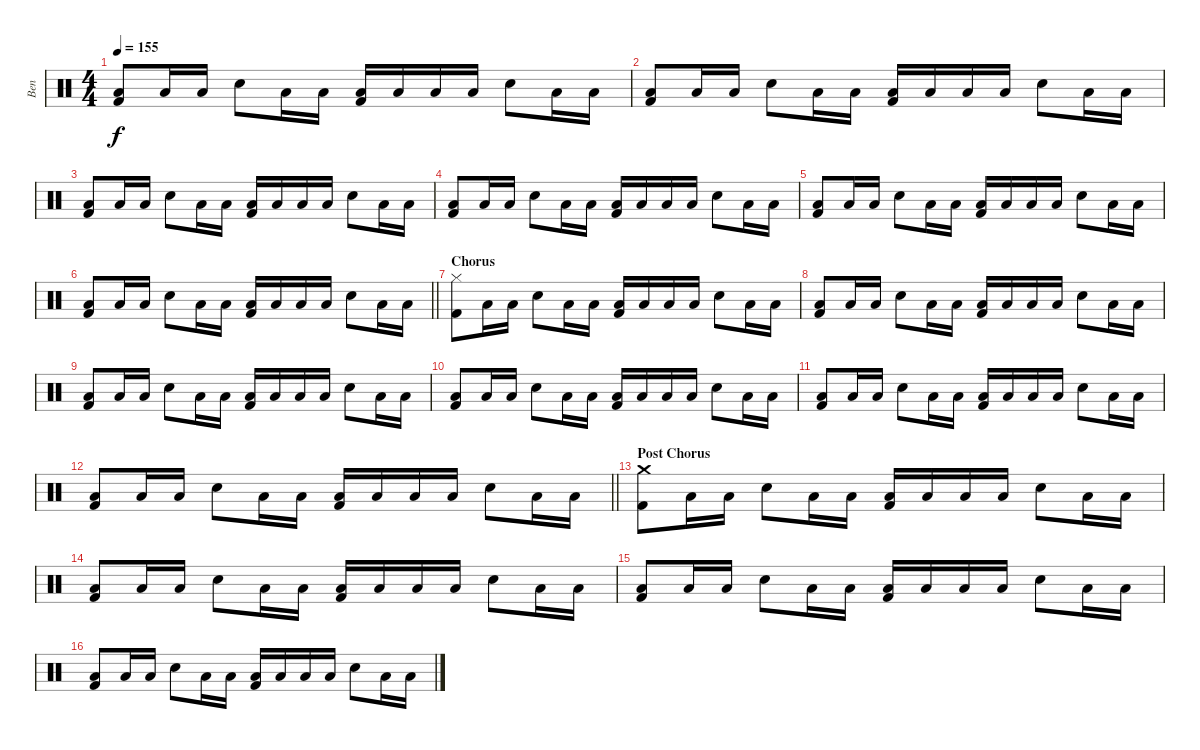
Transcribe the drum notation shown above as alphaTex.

\track ("Ben" "Ben") {instrument percussion}
\staff {score}
\articulation defaults
\ts (4 4)
\tempo 155
\clef neutral
\ks c
("Kick (hit) 2" "Low Floor Tom (hit)").8{dy f} "Low Floor Tom (hit)".16 "Low Floor Tom (hit)".16 "Electric Snare (hit)".8 "Low Floor Tom (hit)".16 "Low Floor Tom (hit)".16 ("Low Floor Tom (hit)" "Kick (hit) 2").16 "Low Floor Tom (hit)".16 "Low Floor Tom (hit)".16 "Low Floor Tom (hit)".16 "Electric Snare (hit)".8 "Low Floor Tom (hit)".16 "Low Floor Tom (hit)".16 |
("Kick (hit) 2" "Low Floor Tom (hit)").8 "Low Floor Tom (hit)".16 "Low Floor Tom (hit)".16 "Electric Snare (hit)".8 "Low Floor Tom (hit)".16 "Low Floor Tom (hit)".16 ("Low Floor Tom (hit)" "Kick (hit) 2").16 "Low Floor Tom (hit)".16 "Low Floor Tom (hit)".16 "Low Floor Tom (hit)".16 "Electric Snare (hit)".8 "Low Floor Tom (hit)".16 "Low Floor Tom (hit)".16 |
("Kick (hit) 2" "Low Floor Tom (hit)").8 "Low Floor Tom (hit)".16 "Low Floor Tom (hit)".16 "Electric Snare (hit)".8 "Low Floor Tom (hit)".16 "Low Floor Tom (hit)".16 ("Low Floor Tom (hit)" "Kick (hit) 2").16 "Low Floor Tom (hit)".16 "Low Floor Tom (hit)".16 "Low Floor Tom (hit)".16 "Electric Snare (hit)".8 "Low Floor Tom (hit)".16 "Low Floor Tom (hit)".16 |
("Kick (hit) 2" "Low Floor Tom (hit)").8 "Low Floor Tom (hit)".16 "Low Floor Tom (hit)".16 "Electric Snare (hit)".8 "Low Floor Tom (hit)".16 "Low Floor Tom (hit)".16 ("Low Floor Tom (hit)" "Kick (hit) 2").16 "Low Floor Tom (hit)".16 "Low Floor Tom (hit)".16 "Low Floor Tom (hit)".16 "Electric Snare (hit)".8 "Low Floor Tom (hit)".16 "Low Floor Tom (hit)".16 |
("Kick (hit) 2" "Low Floor Tom (hit)").8 "Low Floor Tom (hit)".16 "Low Floor Tom (hit)".16 "Electric Snare (hit)".8 "Low Floor Tom (hit)".16 "Low Floor Tom (hit)".16 ("Low Floor Tom (hit)" "Kick (hit) 2").16 "Low Floor Tom (hit)".16 "Low Floor Tom (hit)".16 "Low Floor Tom (hit)".16 "Electric Snare (hit)".8 "Low Floor Tom (hit)".16 "Low Floor Tom (hit)".16 |
\barLineRight lightlight
("Kick (hit) 2" "Low Floor Tom (hit)").8 "Low Floor Tom (hit)".16 "Low Floor Tom (hit)".16 "Electric Snare (hit)".8 "Low Floor Tom (hit)".16 "Low Floor Tom (hit)".16 ("Low Floor Tom (hit)" "Kick (hit) 2").16 "Low Floor Tom (hit)".16 "Low Floor Tom (hit)".16 "Low Floor Tom (hit)".16 "Electric Snare (hit)".8 "Low Floor Tom (hit)".16 "Low Floor Tom (hit)".16 |
\section ("" "Chorus")
("Kick (hit) 2" "Hi-Hat (closed)").8 "Low Floor Tom (hit)".16 "Low Floor Tom (hit)".16 "Electric Snare (hit)".8 "Low Floor Tom (hit)".16 "Low Floor Tom (hit)".16 ("Low Floor Tom (hit)" "Kick (hit) 2").16 "Low Floor Tom (hit)".16 "Low Floor Tom (hit)".16 "Low Floor Tom (hit)".16 "Electric Snare (hit)".8 "Low Floor Tom (hit)".16 "Low Floor Tom (hit)".16 |
("Kick (hit) 2" "Low Floor Tom (hit)").8 "Low Floor Tom (hit)".16 "Low Floor Tom (hit)".16 "Electric Snare (hit)".8 "Low Floor Tom (hit)".16 "Low Floor Tom (hit)".16 ("Low Floor Tom (hit)" "Kick (hit) 2").16 "Low Floor Tom (hit)".16 "Low Floor Tom (hit)".16 "Low Floor Tom (hit)".16 "Electric Snare (hit)".8 "Low Floor Tom (hit)".16 "Low Floor Tom (hit)".16 |
("Kick (hit) 2" "Low Floor Tom (hit)").8 "Low Floor Tom (hit)".16 "Low Floor Tom (hit)".16 "Electric Snare (hit)".8 "Low Floor Tom (hit)".16 "Low Floor Tom (hit)".16 ("Low Floor Tom (hit)" "Kick (hit) 2").16 "Low Floor Tom (hit)".16 "Low Floor Tom (hit)".16 "Low Floor Tom (hit)".16 "Electric Snare (hit)".8 "Low Floor Tom (hit)".16 "Low Floor Tom (hit)".16 |
("Kick (hit) 2" "Low Floor Tom (hit)").8 "Low Floor Tom (hit)".16 "Low Floor Tom (hit)".16 "Electric Snare (hit)".8 "Low Floor Tom (hit)".16 "Low Floor Tom (hit)".16 ("Low Floor Tom (hit)" "Kick (hit) 2").16 "Low Floor Tom (hit)".16 "Low Floor Tom (hit)".16 "Low Floor Tom (hit)".16 "Electric Snare (hit)".8 "Low Floor Tom (hit)".16 "Low Floor Tom (hit)".16 |
("Kick (hit) 2" "Low Floor Tom (hit)").8 "Low Floor Tom (hit)".16 "Low Floor Tom (hit)".16 "Electric Snare (hit)".8 "Low Floor Tom (hit)".16 "Low Floor Tom (hit)".16 ("Low Floor Tom (hit)" "Kick (hit) 2").16 "Low Floor Tom (hit)".16 "Low Floor Tom (hit)".16 "Low Floor Tom (hit)".16 "Electric Snare (hit)".8 "Low Floor Tom (hit)".16 "Low Floor Tom (hit)".16 |
\barLineRight lightlight
("Kick (hit) 2" "Low Floor Tom (hit)").8 "Low Floor Tom (hit)".16 "Low Floor Tom (hit)".16 "Electric Snare (hit)".8 "Low Floor Tom (hit)".16 "Low Floor Tom (hit)".16 ("Low Floor Tom (hit)" "Kick (hit) 2").16 "Low Floor Tom (hit)".16 "Low Floor Tom (hit)".16 "Low Floor Tom (hit)".16 "Electric Snare (hit)".8 "Low Floor Tom (hit)".16 "Low Floor Tom (hit)".16 |
\section ("" "Post Chorus")
("Kick (hit) 2" "Crash medium (hit)").8 "Low Floor Tom (hit)".16 "Low Floor Tom (hit)".16 "Electric Snare (hit)".8 "Low Floor Tom (hit)".16 "Low Floor Tom (hit)".16 ("Low Floor Tom (hit)" "Kick (hit) 2").16 "Low Floor Tom (hit)".16 "Low Floor Tom (hit)".16 "Low Floor Tom (hit)".16 "Electric Snare (hit)".8 "Low Floor Tom (hit)".16 "Low Floor Tom (hit)".16 |
("Kick (hit) 2" "Low Floor Tom (hit)").8 "Low Floor Tom (hit)".16 "Low Floor Tom (hit)".16 "Electric Snare (hit)".8 "Low Floor Tom (hit)".16 "Low Floor Tom (hit)".16 ("Low Floor Tom (hit)" "Kick (hit) 2").16 "Low Floor Tom (hit)".16 "Low Floor Tom (hit)".16 "Low Floor Tom (hit)".16 "Electric Snare (hit)".8 "Low Floor Tom (hit)".16 "Low Floor Tom (hit)".16 |
("Kick (hit) 2" "Low Floor Tom (hit)").8 "Low Floor Tom (hit)".16 "Low Floor Tom (hit)".16 "Electric Snare (hit)".8 "Low Floor Tom (hit)".16 "Low Floor Tom (hit)".16 ("Low Floor Tom (hit)" "Kick (hit) 2").16 "Low Floor Tom (hit)".16 "Low Floor Tom (hit)".16 "Low Floor Tom (hit)".16 "Electric Snare (hit)".8 "Low Floor Tom (hit)".16 "Low Floor Tom (hit)".16 |
("Kick (hit) 2" "Low Floor Tom (hit)").8 "Low Floor Tom (hit)".16 "Low Floor Tom (hit)".16 "Electric Snare (hit)".8 "Low Floor Tom (hit)".16 "Low Floor Tom (hit)".16 ("Low Floor Tom (hit)" "Kick (hit) 2").16 "Low Floor Tom (hit)".16 "Low Floor Tom (hit)".16 "Low Floor Tom (hit)".16 "Electric Snare (hit)".8 "Low Floor Tom (hit)".16 "Low Floor Tom (hit)".16
